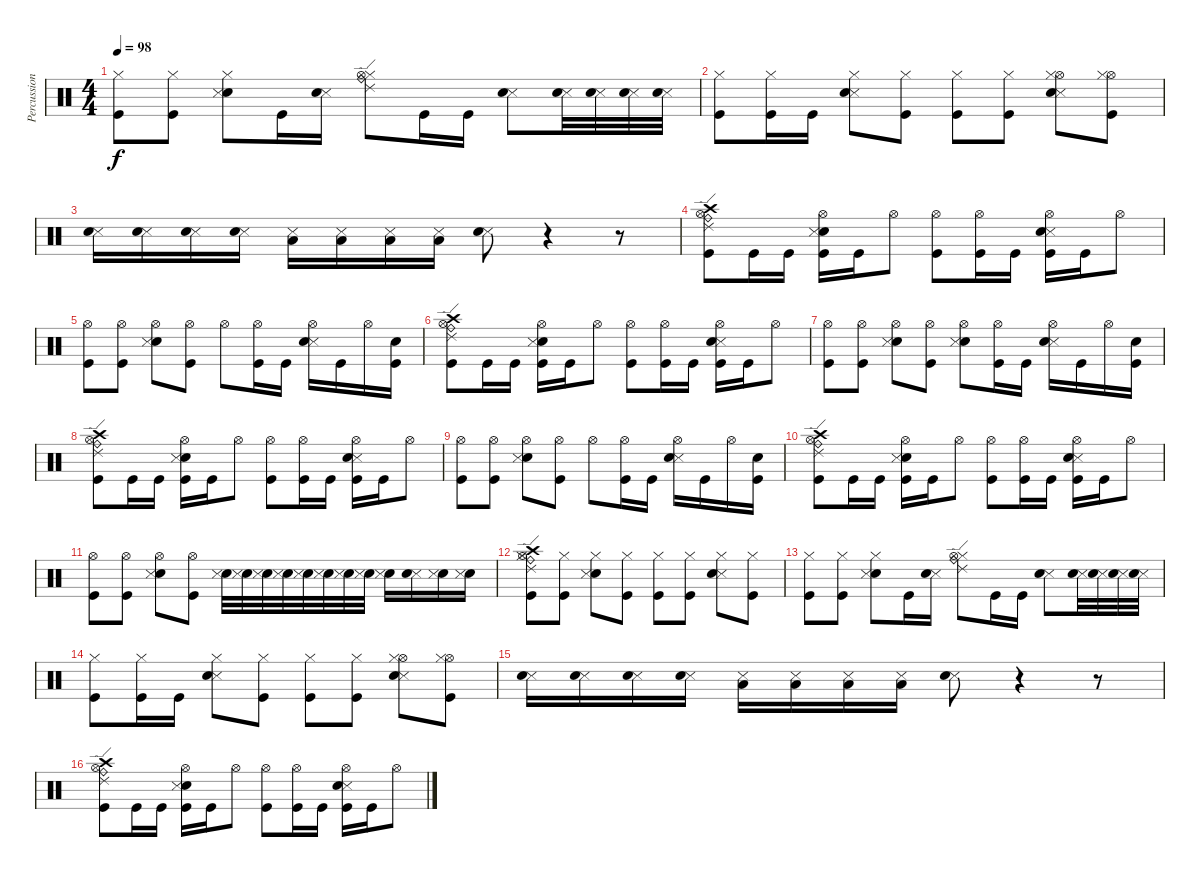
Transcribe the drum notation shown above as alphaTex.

\track ("Percussion" "Percussion") {instrument percussion}
\staff {score}
\articulation defaults
\ts (4 4)
\tempo 98
\clef neutral
\ks c
("Hi-Hat (closed)" "Kick (hit)").8{dy f} ("Hi-Hat (closed)" "Kick (hit)").8 ("Hi-Hat (closed)" "Electric Snare (hit)" "Snare (side stick) 3").8 "Kick (hit)".16 ("Snare (side stick) 3" "Electric Snare (hit)").16 ("Hi-Hat (closed)" "Hi-Hat (open)" "Ride (bell)" "Ride (edge) 2").8 "Kick (hit)".16 "Kick (hit)".16 ("Snare (side stick) 3" "Electric Snare (hit)").8 ("Snare (side stick) 3" "Electric Snare (hit)").32 ("Snare (side stick) 3" "Electric Snare (hit)").32 ("Snare (side stick) 3" "Electric Snare (hit)").32 ("Snare (side stick) 3" "Electric Snare (hit)").32 |
("Kick (hit)" "Hi-Hat (closed)").8 ("Kick (hit)" "Hi-Hat (closed)").16 "Kick (hit)".16 ("Snare (side stick) 3" "Electric Snare (hit)" "Hi-Hat (closed)").8 ("Kick (hit)" "Hi-Hat (closed)").8 ("Kick (hit)" "Hi-Hat (closed)").8 ("Kick (hit)" "Hi-Hat (closed)").8 ("Hi-Hat (open)" "Snare (side stick) 3" "Electric Snare (hit)" "Hi-Hat (closed)").8 ("Kick (hit)" "Hi-Hat (open)" "Hi-Hat (closed)").8 |
("Snare (side stick) 3" "Electric Snare (hit)").16 ("Snare (side stick) 3" "Electric Snare (hit)").16 ("Snare (side stick) 3" "Electric Snare (hit)").16 ("Snare (side stick) 3" "Electric Snare (hit)").16 ("Snare (side stick) 3" "Low Floor Tom (hit)").16 ("Snare (side stick) 3" "Low Floor Tom (hit)").16 ("Snare (side stick) 3" "Low Floor Tom (hit)").16 ("Snare (side stick) 3" "Low Floor Tom (hit)").16 ("Snare (side stick) 3" "Electric Snare (hit)").8 r.4 r.8 |
("Crash high (hit)" "Ride (edge) 2" "Kick (hit)" "Hi-Hat (open)" "Ride (bell)").8 "Kick (hit)".16 "Kick (hit)".16 ("Electric Snare (hit)" "Snare (side stick) 3" "Kick (hit)" "Hi-Hat (open)").16 "Kick (hit)".16 "Hi-Hat (open)".8 ("Kick (hit)" "Hi-Hat (open)").8 ("Kick (hit)" "Hi-Hat (open)").16 "Kick (hit)".16 ("Snare (side stick) 3" "Electric Snare (hit)" "Kick (hit)" "Hi-Hat (open)").16 "Kick (hit)".16 "Hi-Hat (open)".8 |
("Kick (hit)" "Hi-Hat (open)").8 ("Kick (hit)" "Hi-Hat (open)").8 ("Electric Snare (hit)" "Snare (side stick) 3" "Hi-Hat (open)").8 ("Kick (hit)" "Hi-Hat (open)").8 "Hi-Hat (open)".8 ("Kick (hit)" "Hi-Hat (open)").16 "Kick (hit)".16 ("Snare (side stick) 3" "Electric Snare (hit)" "Hi-Hat (open)").16 "Kick (hit)".16 "Hi-Hat (open)".16 ("Kick (hit)" "Electric Snare (hit)").16 |
("Crash high (hit)" "Ride (edge) 2" "Kick (hit)" "Hi-Hat (open)" "Ride (bell)").8 "Kick (hit)".16 "Kick (hit)".16 ("Electric Snare (hit)" "Snare (side stick) 3" "Kick (hit)" "Hi-Hat (open)").16 "Kick (hit)".16 "Hi-Hat (open)".8 ("Kick (hit)" "Hi-Hat (open)").8 ("Kick (hit)" "Hi-Hat (open)").16 "Kick (hit)".16 ("Snare (side stick) 3" "Electric Snare (hit)" "Kick (hit)" "Hi-Hat (open)").16 "Kick (hit)".16 "Hi-Hat (open)".8 |
("Kick (hit)" "Hi-Hat (open)").8 ("Kick (hit)" "Hi-Hat (open)").8 ("Electric Snare (hit)" "Snare (side stick) 3" "Hi-Hat (open)").8 ("Kick (hit)" "Hi-Hat (open)").8 ("Electric Snare (hit)" "Snare (side stick) 3" "Hi-Hat (open)").8 ("Kick (hit)" "Hi-Hat (open)").16 "Kick (hit)".16 ("Snare (side stick) 3" "Electric Snare (hit)" "Hi-Hat (open)").16 "Kick (hit)".16 "Hi-Hat (open)".16 ("Kick (hit)" "Electric Snare (hit)").16 |
("Crash high (hit)" "Ride (edge) 2" "Kick (hit)" "Hi-Hat (open)" "Ride (bell)").8 "Kick (hit)".16 "Kick (hit)".16 ("Electric Snare (hit)" "Snare (side stick) 3" "Kick (hit)" "Hi-Hat (open)").16 "Kick (hit)".16 "Hi-Hat (open)".8 ("Kick (hit)" "Hi-Hat (open)").8 ("Kick (hit)" "Hi-Hat (open)").16 "Kick (hit)".16 ("Snare (side stick) 3" "Electric Snare (hit)" "Kick (hit)" "Hi-Hat (open)").16 "Kick (hit)".16 "Hi-Hat (open)".8 |
("Kick (hit)" "Hi-Hat (open)").8 ("Kick (hit)" "Hi-Hat (open)").8 ("Electric Snare (hit)" "Snare (side stick) 3" "Hi-Hat (open)").8 ("Kick (hit)" "Hi-Hat (open)").8 "Hi-Hat (open)".8 ("Kick (hit)" "Hi-Hat (open)").16 "Kick (hit)".16 ("Snare (side stick) 3" "Electric Snare (hit)" "Hi-Hat (open)").16 "Kick (hit)".16 "Hi-Hat (open)".16 ("Kick (hit)" "Electric Snare (hit)").16 |
("Crash high (hit)" "Ride (edge) 2" "Kick (hit)" "Hi-Hat (open)" "Ride (bell)").8 "Kick (hit)".16 "Kick (hit)".16 ("Electric Snare (hit)" "Snare (side stick) 3" "Kick (hit)" "Hi-Hat (open)").16 "Kick (hit)".16 "Hi-Hat (open)".8 ("Kick (hit)" "Hi-Hat (open)").8 ("Kick (hit)" "Hi-Hat (open)").16 "Kick (hit)".16 ("Snare (side stick) 3" "Electric Snare (hit)" "Kick (hit)" "Hi-Hat (open)").16 "Kick (hit)".16 "Hi-Hat (open)".8 |
("Kick (hit)" "Hi-Hat (open)").8 ("Kick (hit)" "Hi-Hat (open)").8 ("Electric Snare (hit)" "Snare (side stick) 3" "Hi-Hat (open)").8 ("Kick (hit)" "Hi-Hat (open)").8 ("Electric Snare (hit)" "Snare (side stick) 3").32 ("Electric Snare (hit)" "Snare (side stick) 3").32 ("Electric Snare (hit)" "Snare (side stick) 3").32 ("Electric Snare (hit)" "Snare (side stick) 3").32 ("Electric Snare (hit)" "Snare (side stick) 3").32 ("Electric Snare (hit)" "Snare (side stick) 3").32 ("Electric Snare (hit)" "Snare (side stick) 3").32 ("Electric Snare (hit)" "Snare (side stick) 3").32 ("Electric Snare (hit)" "Snare (side stick) 3").16 ("Snare (side stick) 3" "Electric Snare (hit)").16 ("Electric Snare (hit)" "Snare (side stick) 3").16 ("Electric Snare (hit)" "Snare (side stick) 3").16 |
("Kick (hit)" "Hi-Hat (closed)" "Hi-Hat (open)" "Crash high (hit)" "Ride (bell)" "Ride (edge) 2").8 ("Hi-Hat (closed)" "Kick (hit)").8 ("Hi-Hat (closed)" "Electric Snare (hit)" "Snare (side stick) 3").8 ("Hi-Hat (closed)" "Kick (hit)").8 ("Hi-Hat (closed)" "Kick (hit)").8 ("Kick (hit)" "Hi-Hat (closed)").8 ("Hi-Hat (closed)" "Snare (side stick) 3" "Electric Snare (hit)").8 ("Hi-Hat (closed)" "Kick (hit)").8 |
("Hi-Hat (closed)" "Kick (hit)").8 ("Hi-Hat (closed)" "Kick (hit)").8 ("Hi-Hat (closed)" "Electric Snare (hit)" "Snare (side stick) 3").8 "Kick (hit)".16 ("Snare (side stick) 3" "Electric Snare (hit)").16 ("Hi-Hat (closed)" "Hi-Hat (open)" "Ride (bell)" "Ride (edge) 2").8 "Kick (hit)".16 "Kick (hit)".16 ("Snare (side stick) 3" "Electric Snare (hit)").8 ("Snare (side stick) 3" "Electric Snare (hit)").32 ("Snare (side stick) 3" "Electric Snare (hit)").32 ("Snare (side stick) 3" "Electric Snare (hit)").32 ("Snare (side stick) 3" "Electric Snare (hit)").32 |
("Kick (hit)" "Hi-Hat (closed)").8 ("Kick (hit)" "Hi-Hat (closed)").16 "Kick (hit)".16 ("Snare (side stick) 3" "Electric Snare (hit)" "Hi-Hat (closed)").8 ("Kick (hit)" "Hi-Hat (closed)").8 ("Kick (hit)" "Hi-Hat (closed)").8 ("Kick (hit)" "Hi-Hat (closed)").8 ("Hi-Hat (open)" "Snare (side stick) 3" "Electric Snare (hit)" "Hi-Hat (closed)").8 ("Kick (hit)" "Hi-Hat (open)" "Hi-Hat (closed)").8 |
("Snare (side stick) 3" "Electric Snare (hit)").16 ("Snare (side stick) 3" "Electric Snare (hit)").16 ("Snare (side stick) 3" "Electric Snare (hit)").16 ("Snare (side stick) 3" "Electric Snare (hit)").16 ("Snare (side stick) 3" "Low Floor Tom (hit)").16 ("Snare (side stick) 3" "Low Floor Tom (hit)").16 ("Snare (side stick) 3" "Low Floor Tom (hit)").16 ("Snare (side stick) 3" "Low Floor Tom (hit)").16 ("Snare (side stick) 3" "Electric Snare (hit)").8 r.4 r.8 |
("Crash high (hit)" "Ride (edge) 2" "Kick (hit)" "Hi-Hat (open)" "Ride (bell)").8 "Kick (hit)".16 "Kick (hit)".16 ("Electric Snare (hit)" "Snare (side stick) 3" "Kick (hit)" "Hi-Hat (open)").16 "Kick (hit)".16 "Hi-Hat (open)".8 ("Kick (hit)" "Hi-Hat (open)").8 ("Kick (hit)" "Hi-Hat (open)").16 "Kick (hit)".16 ("Snare (side stick) 3" "Electric Snare (hit)" "Kick (hit)" "Hi-Hat (open)").16 "Kick (hit)".16 "Hi-Hat (open)".8
